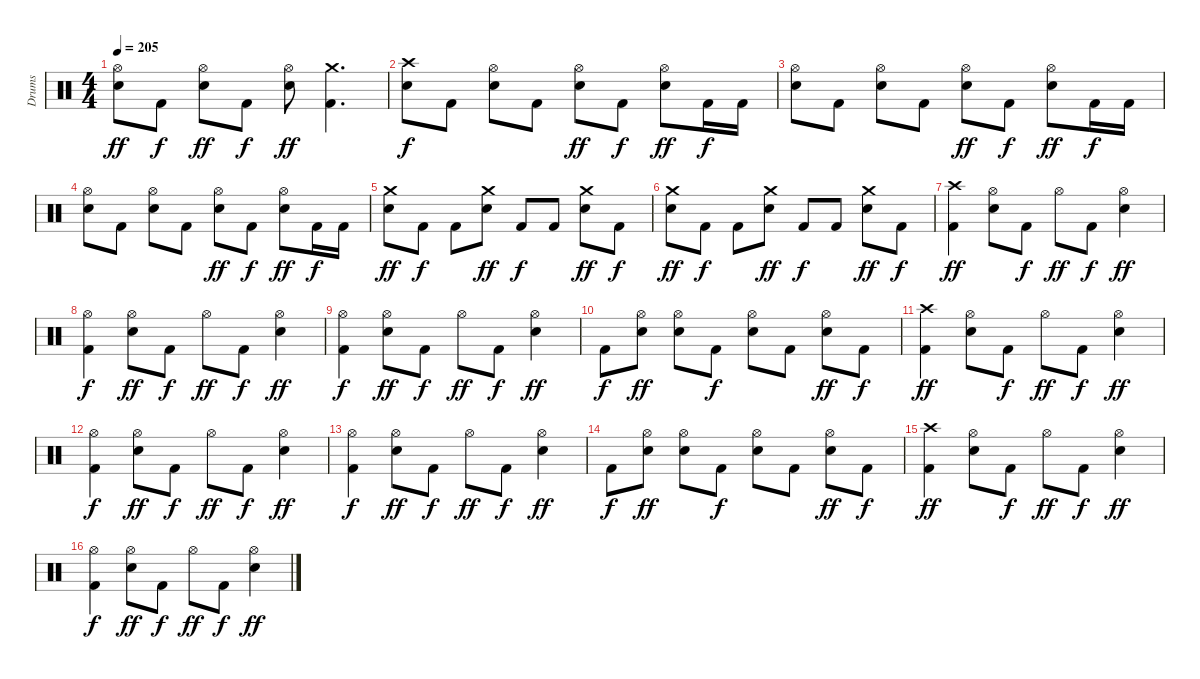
\track ("Drums" "Drums") {instrument percussion}
\staff {score}
\articulation defaults
\ts (4 4)
\tempo 205
\clef neutral
\ks c
("Hi-Hat (open)" "Electric Snare (hit)").8{dy ff} "Kick (hit) 2".8{dy f} ("Hi-Hat (open)" "Electric Snare (hit)").8{dy ff} "Kick (hit) 2".8{dy f} ("Hi-Hat (open)" "Electric Snare (hit)").8{dy ff} ("Kick (hit) 2" "Crash medium (hit)").4{d} |
("Crash high (hit)" "Electric Snare (hit)").8{dy f} "Kick (hit) 2".8 ("Hi-Hat (open)" "Electric Snare (hit)").8 "Kick (hit) 2".8 ("Hi-Hat (open)" "Electric Snare (hit)").8{dy ff} "Kick (hit) 2".8{dy f} ("Hi-Hat (open)" "Electric Snare (hit)").8{dy ff} "Kick (hit) 2".16{dy f} "Kick (hit) 2".16 |
("Hi-Hat (open)" "Electric Snare (hit)").8 "Kick (hit) 2".8 ("Hi-Hat (open)" "Electric Snare (hit)").8 "Kick (hit) 2".8 ("Hi-Hat (open)" "Electric Snare (hit)").8{dy ff} "Kick (hit) 2".8{dy f} ("Hi-Hat (open)" "Electric Snare (hit)").8{dy ff} "Kick (hit) 2".16{dy f} "Kick (hit) 2".16 |
("Hi-Hat (open)" "Electric Snare (hit)").8 "Kick (hit) 2".8 ("Hi-Hat (open)" "Electric Snare (hit)").8 "Kick (hit) 2".8 ("Hi-Hat (open)" "Electric Snare (hit)").8{dy ff} "Kick (hit) 2".8{dy f} ("Hi-Hat (open)" "Electric Snare (hit)").8{dy ff} "Kick (hit) 2".16{dy f} "Kick (hit) 2".16 |
("Crash medium (hit)" "Electric Snare (hit)").8{dy ff} "Kick (hit) 2".8{dy f} "Kick (hit) 2".8 ("Crash medium (hit)" "Electric Snare (hit)").8{dy ff} "Kick (hit) 2".8{dy f} "Kick (hit) 2".8 ("Crash medium (hit)" "Electric Snare (hit)").8{dy ff} "Kick (hit) 2".8{dy f} |
("Crash medium (hit)" "Electric Snare (hit)").8{dy ff} "Kick (hit) 2".8{dy f} "Kick (hit) 2".8 ("Crash medium (hit)" "Electric Snare (hit)").8{dy ff} "Kick (hit) 2".8{dy f} "Kick (hit) 2".8 ("Crash medium (hit)" "Electric Snare (hit)").8{dy ff} "Kick (hit) 2".8{dy f} |
("Crash high (hit)" "Kick (hit) 2").4{dy ff} ("Hi-Hat (open)" "Electric Snare (hit)").8 "Kick (hit) 2".8{dy f} "Hi-Hat (open)".8{dy ff} "Kick (hit) 2".8{dy f} ("Hi-Hat (open)" "Electric Snare (hit)").4{dy ff} |
("Hi-Hat (open)" "Kick (hit) 2").4{dy f} ("Hi-Hat (open)" "Electric Snare (hit)").8{dy ff} "Kick (hit) 2".8{dy f} "Hi-Hat (open)".8{dy ff} "Kick (hit) 2".8{dy f} ("Hi-Hat (open)" "Electric Snare (hit)").4{dy ff} |
("Hi-Hat (open)" "Kick (hit) 2").4{dy f} ("Hi-Hat (open)" "Electric Snare (hit)").8{dy ff} "Kick (hit) 2".8{dy f} "Hi-Hat (open)".8{dy ff} "Kick (hit) 2".8{dy f} ("Hi-Hat (open)" "Electric Snare (hit)").4{dy ff} |
"Kick (hit) 2".8{dy f} ("Hi-Hat (open)" "Electric Snare (hit)").8{dy ff} ("Hi-Hat (open)" "Electric Snare (hit)").8 "Kick (hit) 2".8{dy f} ("Hi-Hat (open)" "Electric Snare (hit)").8 "Kick (hit) 2".8 ("Hi-Hat (open)" "Electric Snare (hit)").8{dy ff} "Kick (hit) 2".8{dy f} |
("Crash high (hit)" "Kick (hit) 2").4{dy ff} ("Hi-Hat (open)" "Electric Snare (hit)").8 "Kick (hit) 2".8{dy f} "Hi-Hat (open)".8{dy ff} "Kick (hit) 2".8{dy f} ("Hi-Hat (open)" "Electric Snare (hit)").4{dy ff} |
("Hi-Hat (open)" "Kick (hit) 2").4{dy f} ("Hi-Hat (open)" "Electric Snare (hit)").8{dy ff} "Kick (hit) 2".8{dy f} "Hi-Hat (open)".8{dy ff} "Kick (hit) 2".8{dy f} ("Hi-Hat (open)" "Electric Snare (hit)").4{dy ff} |
("Hi-Hat (open)" "Kick (hit) 2").4{dy f} ("Hi-Hat (open)" "Electric Snare (hit)").8{dy ff} "Kick (hit) 2".8{dy f} "Hi-Hat (open)".8{dy ff} "Kick (hit) 2".8{dy f} ("Hi-Hat (open)" "Electric Snare (hit)").4{dy ff} |
"Kick (hit) 2".8{dy f} ("Hi-Hat (open)" "Electric Snare (hit)").8{dy ff} ("Hi-Hat (open)" "Electric Snare (hit)").8 "Kick (hit) 2".8{dy f} ("Hi-Hat (open)" "Electric Snare (hit)").8 "Kick (hit) 2".8 ("Hi-Hat (open)" "Electric Snare (hit)").8{dy ff} "Kick (hit) 2".8{dy f} |
("Crash high (hit)" "Kick (hit) 2").4{dy ff} ("Hi-Hat (open)" "Electric Snare (hit)").8 "Kick (hit) 2".8{dy f} "Hi-Hat (open)".8{dy ff} "Kick (hit) 2".8{dy f} ("Hi-Hat (open)" "Electric Snare (hit)").4{dy ff} |
("Hi-Hat (open)" "Kick (hit) 2").4{dy f} ("Hi-Hat (open)" "Electric Snare (hit)").8{dy ff} "Kick (hit) 2".8{dy f} "Hi-Hat (open)".8{dy ff} "Kick (hit) 2".8{dy f} ("Hi-Hat (open)" "Electric Snare (hit)").4{dy ff}
